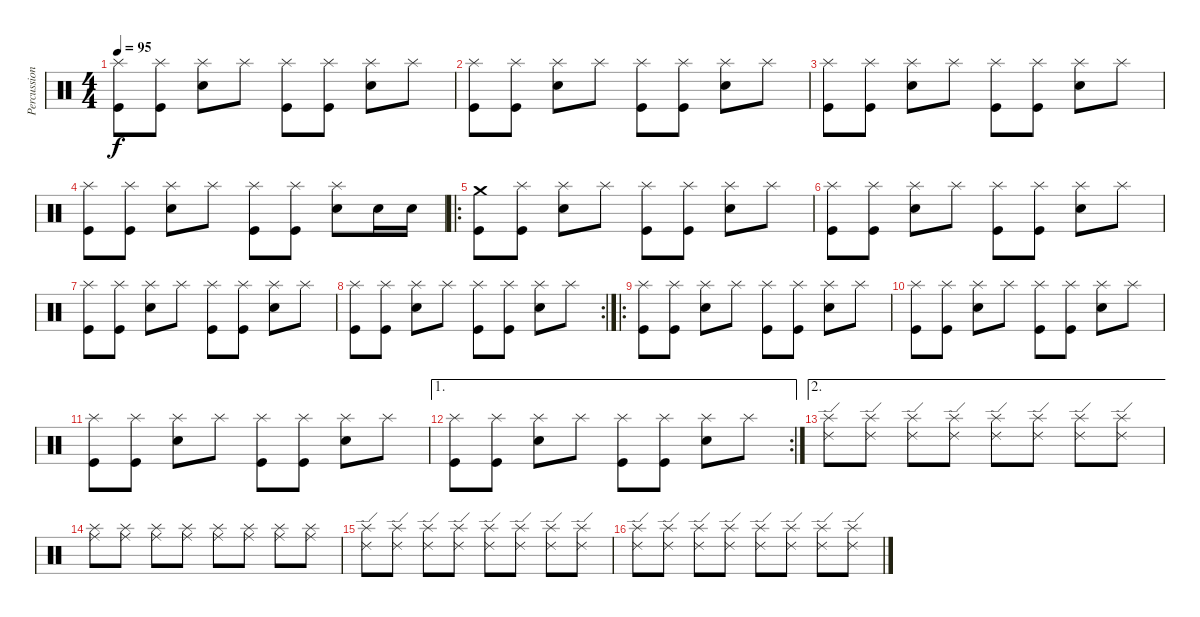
\track ("Percussions" "Percussion") {instrument percussion}
\staff {score}
\articulation defaults
\ts (4 4)
\tempo 95
\clef neutral
\ks c
("Splash (hit)" "Kick (hit)").8{dy f} ("Splash (hit)" "Kick (hit)").8 ("Splash (hit)" "Electric Snare (hit)").8 "Splash (hit)".8 ("Splash (hit)" "Kick (hit)").8 ("Splash (hit)" "Kick (hit)").8 ("Splash (hit)" "Electric Snare (hit)").8 "Splash (hit)".8 |
("Splash (hit)" "Kick (hit)").8 ("Splash (hit)" "Kick (hit)").8 ("Splash (hit)" "Electric Snare (hit)").8 "Splash (hit)".8 ("Splash (hit)" "Kick (hit)").8 ("Splash (hit)" "Kick (hit)").8 ("Splash (hit)" "Electric Snare (hit)").8 "Splash (hit)".8 |
("Splash (hit)" "Kick (hit)").8 ("Splash (hit)" "Kick (hit)").8 ("Splash (hit)" "Electric Snare (hit)").8 "Splash (hit)".8 ("Splash (hit)" "Kick (hit)").8 ("Splash (hit)" "Kick (hit)").8 ("Splash (hit)" "Electric Snare (hit)").8 "Splash (hit)".8 |
("Splash (hit)" "Kick (hit)").8 ("Splash (hit)" "Kick (hit)").8 ("Splash (hit)" "Electric Snare (hit)").8 "Splash (hit)".8 ("Splash (hit)" "Kick (hit)").8 ("Splash (hit)" "Kick (hit)").8 ("Splash (hit)" "Electric Snare (hit)").8 "Snare (hit) 2".16 "Snare (hit) 2".16 |
\ro
("Crash medium (hit)" "Kick (hit)").8 ("Splash (hit)" "Kick (hit)").8 ("Splash (hit)" "Electric Snare (hit)").8 "Splash (hit)".8 ("Splash (hit)" "Kick (hit)").8 ("Splash (hit)" "Kick (hit)").8 ("Splash (hit)" "Electric Snare (hit)").8 "Splash (hit)".8 |
("Splash (hit)" "Kick (hit)").8 ("Splash (hit)" "Kick (hit)").8 ("Splash (hit)" "Electric Snare (hit)").8 "Splash (hit)".8 ("Splash (hit)" "Kick (hit)").8 ("Splash (hit)" "Kick (hit)").8 ("Splash (hit)" "Electric Snare (hit)").8 "Splash (hit)".8 |
("Splash (hit)" "Kick (hit)").8 ("Splash (hit)" "Kick (hit)").8 ("Splash (hit)" "Electric Snare (hit)").8 "Splash (hit)".8 ("Splash (hit)" "Kick (hit)").8 ("Splash (hit)" "Kick (hit)").8 ("Splash (hit)" "Electric Snare (hit)").8 "Splash (hit)".8 |
\rc 2
("Splash (hit)" "Kick (hit)").8 ("Splash (hit)" "Kick (hit)").8 ("Splash (hit)" "Electric Snare (hit)").8 "Splash (hit)".8 ("Splash (hit)" "Kick (hit)").8 ("Splash (hit)" "Kick (hit)").8 ("Splash (hit)" "Electric Snare (hit)").8 "Splash (hit)".8 |
\ro
("Splash (hit)" "Kick (hit)").8 ("Splash (hit)" "Kick (hit)").8 ("Splash (hit)" "Electric Snare (hit)").8 "Splash (hit)".8 ("Splash (hit)" "Kick (hit)").8 ("Splash (hit)" "Kick (hit)").8 ("Splash (hit)" "Electric Snare (hit)").8 "Splash (hit)".8 |
("Splash (hit)" "Kick (hit)").8 ("Splash (hit)" "Kick (hit)").8 ("Splash (hit)" "Electric Snare (hit)").8 "Splash (hit)".8 ("Splash (hit)" "Kick (hit)").8 ("Splash (hit)" "Kick (hit)").8 ("Splash (hit)" "Electric Snare (hit)").8 "Splash (hit)".8 |
("Splash (hit)" "Kick (hit)").8 ("Splash (hit)" "Kick (hit)").8 ("Splash (hit)" "Electric Snare (hit)").8 "Splash (hit)".8 ("Splash (hit)" "Kick (hit)").8 ("Splash (hit)" "Kick (hit)").8 ("Splash (hit)" "Electric Snare (hit)").8 "Splash (hit)".8 |
\ae 1
\rc 2
("Splash (hit)" "Kick (hit)").8 ("Splash (hit)" "Kick (hit)").8 ("Splash (hit)" "Electric Snare (hit)").8 "Splash (hit)".8 ("Splash (hit)" "Kick (hit)").8 ("Splash (hit)" "Kick (hit)").8 ("Splash (hit)" "Electric Snare (hit)").8 "Splash (hit)".8 |
\ae 2
("Ride (edge) 2" "Splash (hit)").8{volume 7} ("Ride (edge) 2" "Splash (hit)").8 ("Ride (edge) 2" "Splash (hit)").8 ("Ride (edge) 2" "Splash (hit)").8 ("Ride (edge) 2" "Splash (hit)").8 ("Ride (edge) 2" "Splash (hit)").8 ("Ride (edge) 2" "Splash (hit)").8 ("Ride (edge) 2" "Splash (hit)").8 |
("Ride (middle)" "Splash (hit)").8 ("Ride (middle)" "Splash (hit)").8 ("Ride (middle)" "Splash (hit)").8 ("Ride (middle)" "Splash (hit)").8 ("Ride (middle)" "Splash (hit)").8 ("Ride (middle)" "Splash (hit)").8 ("Ride (middle)" "Splash (hit)").8 ("Ride (middle)" "Splash (hit)").8 |
("Ride (edge) 2" "Splash (hit)").8 ("Ride (edge) 2" "Splash (hit)").8 ("Ride (edge) 2" "Splash (hit)").8 ("Ride (edge) 2" "Splash (hit)").8 ("Ride (edge) 2" "Splash (hit)").8 ("Ride (edge) 2" "Splash (hit)").8 ("Ride (edge) 2" "Splash (hit)").8 ("Ride (edge) 2" "Splash (hit)").8 |
("Ride (edge) 2" "Splash (hit)").8 ("Ride (edge) 2" "Splash (hit)").8 ("Ride (edge) 2" "Splash (hit)").8 ("Ride (edge) 2" "Splash (hit)").8 ("Ride (edge) 2" "Splash (hit)").8 ("Ride (edge) 2" "Splash (hit)").8 ("Ride (edge) 2" "Splash (hit)").8 ("Ride (edge) 2" "Splash (hit)").8
